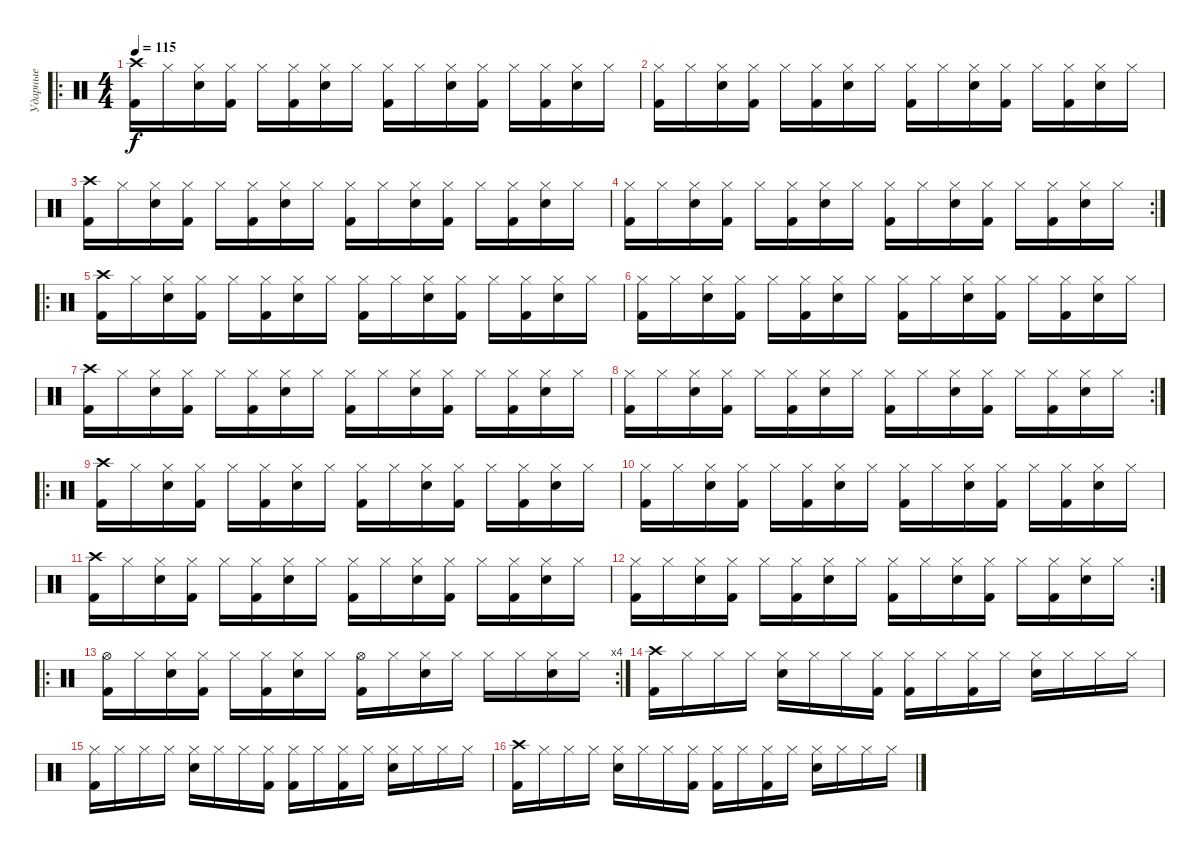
\track ("Ударные" "Ударные") {instrument percussion}
\staff {score}
\articulation defaults
\ro
\ts (4 4)
\tempo 115
\clef neutral
\ks c
("Kick (hit) 2" "Crash high (hit)").16{dy f} "Hi-Hat (closed)".16 ("Electric Snare (hit)" "Hi-Hat (closed)").16 ("Kick (hit) 2" "Hi-Hat (closed)").16 "Hi-Hat (closed)".16 ("Kick (hit) 2" "Hi-Hat (closed)").16 ("Electric Snare (hit)" "Hi-Hat (closed)").16 "Hi-Hat (closed)".16 ("Kick (hit) 2" "Hi-Hat (closed)").16 "Hi-Hat (closed)".16 ("Electric Snare (hit)" "Hi-Hat (closed)").16 ("Kick (hit) 2" "Hi-Hat (closed)").16 "Hi-Hat (closed)".16 ("Kick (hit) 2" "Hi-Hat (closed)").16 ("Electric Snare (hit)" "Hi-Hat (closed)").16 "Hi-Hat (closed)".16 |
("Kick (hit) 2" "Hi-Hat (closed)").16 "Hi-Hat (closed)".16 ("Electric Snare (hit)" "Hi-Hat (closed)").16 ("Kick (hit) 2" "Hi-Hat (closed)").16 "Hi-Hat (closed)".16 ("Kick (hit) 2" "Hi-Hat (closed)").16 ("Electric Snare (hit)" "Hi-Hat (closed)").16 "Hi-Hat (closed)".16 ("Kick (hit) 2" "Hi-Hat (closed)").16 "Hi-Hat (closed)".16 ("Electric Snare (hit)" "Hi-Hat (closed)").16 ("Kick (hit) 2" "Hi-Hat (closed)").16 "Hi-Hat (closed)".16 ("Kick (hit) 2" "Hi-Hat (closed)").16 ("Electric Snare (hit)" "Hi-Hat (closed)").16 "Hi-Hat (closed)".16 |
("Kick (hit) 2" "Crash high (hit)").16 "Hi-Hat (closed)".16 ("Electric Snare (hit)" "Hi-Hat (closed)").16 ("Kick (hit) 2" "Hi-Hat (closed)").16 "Hi-Hat (closed)".16 ("Kick (hit) 2" "Hi-Hat (closed)").16 ("Electric Snare (hit)" "Hi-Hat (closed)").16 "Hi-Hat (closed)".16 ("Kick (hit) 2" "Hi-Hat (closed)").16 "Hi-Hat (closed)".16 ("Electric Snare (hit)" "Hi-Hat (closed)").16 ("Kick (hit) 2" "Hi-Hat (closed)").16 "Hi-Hat (closed)".16 ("Kick (hit) 2" "Hi-Hat (closed)").16 ("Electric Snare (hit)" "Hi-Hat (closed)").16 "Hi-Hat (closed)".16 |
\rc 2
("Kick (hit) 2" "Hi-Hat (closed)").16 "Hi-Hat (closed)".16 ("Electric Snare (hit)" "Hi-Hat (closed)").16 ("Kick (hit) 2" "Hi-Hat (closed)").16 "Hi-Hat (closed)".16 ("Kick (hit) 2" "Hi-Hat (closed)").16 ("Electric Snare (hit)" "Hi-Hat (closed)").16 "Hi-Hat (closed)".16 ("Kick (hit) 2" "Hi-Hat (closed)").16 "Hi-Hat (closed)".16 ("Electric Snare (hit)" "Hi-Hat (closed)").16 ("Kick (hit) 2" "Hi-Hat (closed)").16 "Hi-Hat (closed)".16 ("Kick (hit) 2" "Hi-Hat (closed)").16 ("Electric Snare (hit)" "Hi-Hat (closed)").16 "Hi-Hat (closed)".16 |
\ro
("Kick (hit) 2" "Crash high (hit)").16 "Hi-Hat (closed)".16 ("Electric Snare (hit)" "Hi-Hat (closed)").16 ("Kick (hit) 2" "Hi-Hat (closed)").16 "Hi-Hat (closed)".16 ("Kick (hit) 2" "Hi-Hat (closed)").16 ("Electric Snare (hit)" "Hi-Hat (closed)").16 "Hi-Hat (closed)".16 ("Kick (hit) 2" "Hi-Hat (closed)").16 "Hi-Hat (closed)".16 ("Electric Snare (hit)" "Hi-Hat (closed)").16 ("Kick (hit) 2" "Hi-Hat (closed)").16 "Hi-Hat (closed)".16 ("Kick (hit) 2" "Hi-Hat (closed)").16 ("Electric Snare (hit)" "Hi-Hat (closed)").16 "Hi-Hat (closed)".16 |
("Kick (hit) 2" "Hi-Hat (closed)").16 "Hi-Hat (closed)".16 ("Electric Snare (hit)" "Hi-Hat (closed)").16 ("Kick (hit) 2" "Hi-Hat (closed)").16 "Hi-Hat (closed)".16 ("Kick (hit) 2" "Hi-Hat (closed)").16 ("Electric Snare (hit)" "Hi-Hat (closed)").16 "Hi-Hat (closed)".16 ("Kick (hit) 2" "Hi-Hat (closed)").16 "Hi-Hat (closed)".16 ("Electric Snare (hit)" "Hi-Hat (closed)").16 ("Kick (hit) 2" "Hi-Hat (closed)").16 "Hi-Hat (closed)".16 ("Kick (hit) 2" "Hi-Hat (closed)").16 ("Electric Snare (hit)" "Hi-Hat (closed)").16 "Hi-Hat (closed)".16 |
("Kick (hit) 2" "Crash high (hit)").16 "Hi-Hat (closed)".16 ("Electric Snare (hit)" "Hi-Hat (closed)").16 ("Kick (hit) 2" "Hi-Hat (closed)").16 "Hi-Hat (closed)".16 ("Kick (hit) 2" "Hi-Hat (closed)").16 ("Electric Snare (hit)" "Hi-Hat (closed)").16 "Hi-Hat (closed)".16 ("Kick (hit) 2" "Hi-Hat (closed)").16 "Hi-Hat (closed)".16 ("Electric Snare (hit)" "Hi-Hat (closed)").16 ("Kick (hit) 2" "Hi-Hat (closed)").16 "Hi-Hat (closed)".16 ("Kick (hit) 2" "Hi-Hat (closed)").16 ("Electric Snare (hit)" "Hi-Hat (closed)").16 "Hi-Hat (closed)".16 |
\rc 2
("Kick (hit) 2" "Hi-Hat (closed)").16 "Hi-Hat (closed)".16 ("Electric Snare (hit)" "Hi-Hat (closed)").16 ("Kick (hit) 2" "Hi-Hat (closed)").16 "Hi-Hat (closed)".16 ("Kick (hit) 2" "Hi-Hat (closed)").16 ("Electric Snare (hit)" "Hi-Hat (closed)").16 "Hi-Hat (closed)".16 ("Kick (hit) 2" "Hi-Hat (closed)").16 "Hi-Hat (closed)".16 ("Electric Snare (hit)" "Hi-Hat (closed)").16 ("Kick (hit) 2" "Hi-Hat (closed)").16 "Hi-Hat (closed)".16 ("Kick (hit) 2" "Hi-Hat (closed)").16 ("Electric Snare (hit)" "Hi-Hat (closed)").16 "Hi-Hat (closed)".16 |
\ro
("Kick (hit) 2" "Crash high (hit)").16 "Hi-Hat (closed)".16 ("Electric Snare (hit)" "Hi-Hat (closed)").16 ("Kick (hit) 2" "Hi-Hat (closed)").16 "Hi-Hat (closed)".16 ("Kick (hit) 2" "Hi-Hat (closed)").16 ("Electric Snare (hit)" "Hi-Hat (closed)").16 "Hi-Hat (closed)".16 ("Kick (hit) 2" "Hi-Hat (closed)").16 "Hi-Hat (closed)".16 ("Electric Snare (hit)" "Hi-Hat (closed)").16 ("Kick (hit) 2" "Hi-Hat (closed)").16 "Hi-Hat (closed)".16 ("Kick (hit) 2" "Hi-Hat (closed)").16 ("Electric Snare (hit)" "Hi-Hat (closed)").16 "Hi-Hat (closed)".16 |
("Kick (hit) 2" "Hi-Hat (closed)").16 "Hi-Hat (closed)".16 ("Electric Snare (hit)" "Hi-Hat (closed)").16 ("Kick (hit) 2" "Hi-Hat (closed)").16 "Hi-Hat (closed)".16 ("Kick (hit) 2" "Hi-Hat (closed)").16 ("Electric Snare (hit)" "Hi-Hat (closed)").16 "Hi-Hat (closed)".16 ("Kick (hit) 2" "Hi-Hat (closed)").16 "Hi-Hat (closed)".16 ("Electric Snare (hit)" "Hi-Hat (closed)").16 ("Kick (hit) 2" "Hi-Hat (closed)").16 "Hi-Hat (closed)".16 ("Kick (hit) 2" "Hi-Hat (closed)").16 ("Electric Snare (hit)" "Hi-Hat (closed)").16 "Hi-Hat (closed)".16 |
("Kick (hit) 2" "Crash high (hit)").16 "Hi-Hat (closed)".16 ("Electric Snare (hit)" "Hi-Hat (closed)").16 ("Kick (hit) 2" "Hi-Hat (closed)").16 "Hi-Hat (closed)".16 ("Kick (hit) 2" "Hi-Hat (closed)").16 ("Electric Snare (hit)" "Hi-Hat (closed)").16 "Hi-Hat (closed)".16 ("Kick (hit) 2" "Hi-Hat (closed)").16 "Hi-Hat (closed)".16 ("Electric Snare (hit)" "Hi-Hat (closed)").16 ("Kick (hit) 2" "Hi-Hat (closed)").16 "Hi-Hat (closed)".16 ("Kick (hit) 2" "Hi-Hat (closed)").16 ("Electric Snare (hit)" "Hi-Hat (closed)").16 "Hi-Hat (closed)".16 |
\rc 2
("Kick (hit) 2" "Hi-Hat (closed)").16 "Hi-Hat (closed)".16 ("Electric Snare (hit)" "Hi-Hat (closed)").16 ("Kick (hit) 2" "Hi-Hat (closed)").16 "Hi-Hat (closed)".16 ("Kick (hit) 2" "Hi-Hat (closed)").16 ("Electric Snare (hit)" "Hi-Hat (closed)").16 "Hi-Hat (closed)".16 ("Kick (hit) 2" "Hi-Hat (closed)").16 "Hi-Hat (closed)".16 ("Electric Snare (hit)" "Hi-Hat (closed)").16 ("Kick (hit) 2" "Hi-Hat (closed)").16 "Hi-Hat (closed)".16 ("Kick (hit) 2" "Hi-Hat (closed)").16 ("Electric Snare (hit)" "Hi-Hat (closed)").16 "Hi-Hat (closed)".16 |
\ro
\rc 4
("Kick (hit) 2" "Hi-Hat (open)").16 "Hi-Hat (closed)".16 ("Electric Snare (hit)" "Hi-Hat (closed)").16 ("Kick (hit) 2" "Hi-Hat (closed)").16 "Hi-Hat (closed)".16 ("Kick (hit) 2" "Hi-Hat (closed)").16 ("Electric Snare (hit)" "Hi-Hat (closed)").16 "Hi-Hat (closed)".16 ("Kick (hit) 2" "Hi-Hat (open)").16 "Hi-Hat (closed)".16 ("Electric Snare (hit)" "Hi-Hat (closed)").16 "Hi-Hat (closed)".16 "Hi-Hat (closed)".16 "Hi-Hat (closed)".16 ("Electric Snare (hit)" "Hi-Hat (closed)").16 "Hi-Hat (closed)".16 |
("Kick (hit) 2" "Crash high (hit)").16 "Hi-Hat (closed)".16 "Hi-Hat (closed)".16 "Hi-Hat (closed)".16 ("Electric Snare (hit)" "Hi-Hat (closed)").16 "Hi-Hat (closed)".16 "Hi-Hat (closed)".16 ("Kick (hit) 2" "Hi-Hat (closed)").16 ("Kick (hit) 2" "Hi-Hat (closed)").16 "Hi-Hat (closed)".16 ("Kick (hit) 2" "Hi-Hat (closed)").16 "Hi-Hat (closed)".16 ("Electric Snare (hit)" "Hi-Hat (closed)").16 "Hi-Hat (closed)".16 "Hi-Hat (closed)".16 "Hi-Hat (closed)".16 |
("Kick (hit) 2" "Hi-Hat (closed)").16 "Hi-Hat (closed)".16 "Hi-Hat (closed)".16 "Hi-Hat (closed)".16 ("Electric Snare (hit)" "Hi-Hat (closed)").16 "Hi-Hat (closed)".16 "Hi-Hat (closed)".16 ("Kick (hit) 2" "Hi-Hat (closed)").16 ("Kick (hit) 2" "Hi-Hat (closed)").16 "Hi-Hat (closed)".16 ("Kick (hit) 2" "Hi-Hat (closed)").16 "Hi-Hat (closed)".16 ("Electric Snare (hit)" "Hi-Hat (closed)").16 "Hi-Hat (closed)".16 "Hi-Hat (closed)".16 "Hi-Hat (closed)".16 |
("Kick (hit) 2" "Crash high (hit)").16 "Hi-Hat (closed)".16 "Hi-Hat (closed)".16 "Hi-Hat (closed)".16 ("Electric Snare (hit)" "Hi-Hat (closed)").16 "Hi-Hat (closed)".16 "Hi-Hat (closed)".16 ("Kick (hit) 2" "Hi-Hat (closed)").16 ("Kick (hit) 2" "Hi-Hat (closed)").16 "Hi-Hat (closed)".16 ("Kick (hit) 2" "Hi-Hat (closed)").16 "Hi-Hat (closed)".16 ("Electric Snare (hit)" "Hi-Hat (closed)").16 "Hi-Hat (closed)".16 "Hi-Hat (closed)".16 "Hi-Hat (closed)".16
